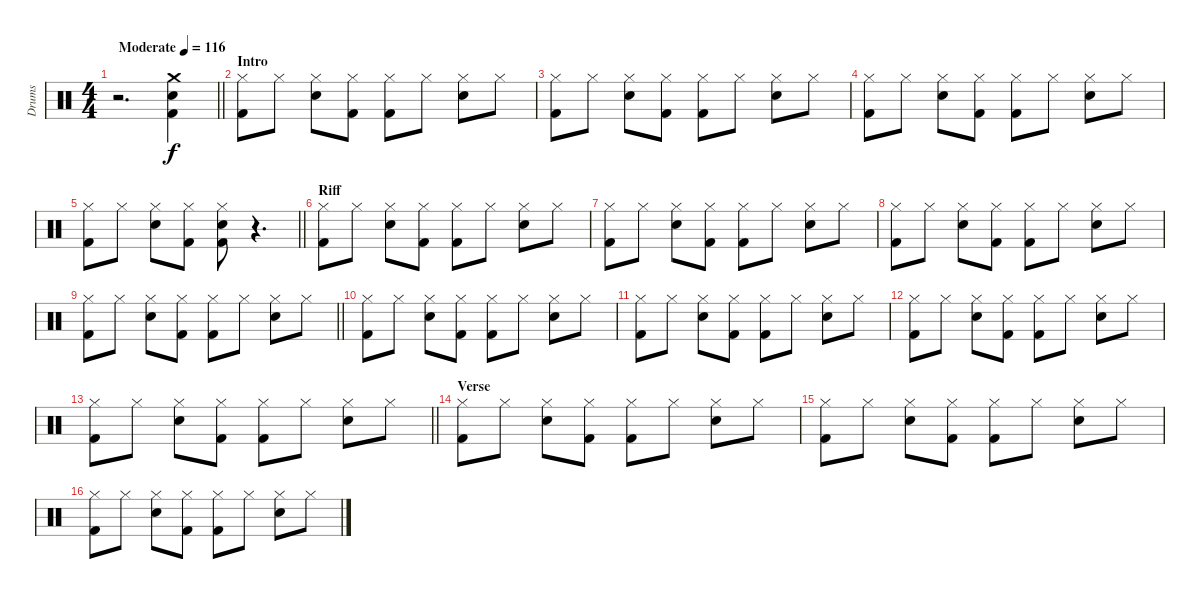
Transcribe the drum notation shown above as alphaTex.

\track ("Drums" "Drums") {instrument percussion}
\staff {score}
\articulation defaults
\ts (4 4)
\tempo (116 "Moderate")
\clef neutral
\barLineRight lightlight
\ks c
r.2{d dy f} ("Electric Snare (hit)" "Kick (hit) 2" "Crash medium (hit)").4 |
\section ("" "Intro")
("Kick (hit) 2" "Hi-Hat (closed)").8 "Hi-Hat (closed)".8 ("Electric Snare (hit)" "Hi-Hat (closed)").8 ("Kick (hit) 2" "Hi-Hat (closed)").8 ("Kick (hit) 2" "Hi-Hat (closed)").8 "Hi-Hat (closed)".8 ("Electric Snare (hit)" "Hi-Hat (closed)").8 "Hi-Hat (closed)".8 |
("Kick (hit) 2" "Hi-Hat (closed)").8 "Hi-Hat (closed)".8 ("Electric Snare (hit)" "Hi-Hat (closed)").8 ("Kick (hit) 2" "Hi-Hat (closed)").8 ("Kick (hit) 2" "Hi-Hat (closed)").8 "Hi-Hat (closed)".8 ("Electric Snare (hit)" "Hi-Hat (closed)").8 "Hi-Hat (closed)".8 |
("Kick (hit) 2" "Hi-Hat (closed)").8 "Hi-Hat (closed)".8 ("Electric Snare (hit)" "Hi-Hat (closed)").8 ("Kick (hit) 2" "Hi-Hat (closed)").8 ("Kick (hit) 2" "Hi-Hat (closed)").8 "Hi-Hat (closed)".8 ("Electric Snare (hit)" "Hi-Hat (closed)").8 "Hi-Hat (closed)".8 |
\barLineRight lightlight
("Kick (hit) 2" "Hi-Hat (closed)").8 "Hi-Hat (closed)".8 ("Electric Snare (hit)" "Hi-Hat (closed)").8 ("Kick (hit) 2" "Hi-Hat (closed)").8 ("Electric Snare (hit)" "Kick (hit) 2" "Hi-Hat (closed)").8 r.4{d} |
\section ("" "Riff")
("Kick (hit) 2" "Hi-Hat (closed)").8 "Hi-Hat (closed)".8 ("Electric Snare (hit)" "Hi-Hat (closed)").8 ("Kick (hit) 2" "Hi-Hat (closed)").8 ("Kick (hit) 2" "Hi-Hat (closed)").8 "Hi-Hat (closed)".8 ("Electric Snare (hit)" "Hi-Hat (closed)").8 "Hi-Hat (closed)".8 |
("Kick (hit) 2" "Hi-Hat (closed)").8 "Hi-Hat (closed)".8 ("Electric Snare (hit)" "Hi-Hat (closed)").8 ("Kick (hit) 2" "Hi-Hat (closed)").8 ("Kick (hit) 2" "Hi-Hat (closed)").8 "Hi-Hat (closed)".8 ("Electric Snare (hit)" "Hi-Hat (closed)").8 "Hi-Hat (closed)".8 |
("Kick (hit) 2" "Hi-Hat (closed)").8 "Hi-Hat (closed)".8 ("Electric Snare (hit)" "Hi-Hat (closed)").8 ("Kick (hit) 2" "Hi-Hat (closed)").8 ("Kick (hit) 2" "Hi-Hat (closed)").8 "Hi-Hat (closed)".8 ("Electric Snare (hit)" "Hi-Hat (closed)").8 "Hi-Hat (closed)".8 |
\barLineRight lightlight
("Kick (hit) 2" "Hi-Hat (closed)").8 "Hi-Hat (closed)".8 ("Electric Snare (hit)" "Hi-Hat (closed)").8 ("Kick (hit) 2" "Hi-Hat (closed)").8 ("Kick (hit) 2" "Hi-Hat (closed)").8 "Hi-Hat (closed)".8 ("Electric Snare (hit)" "Hi-Hat (closed)").8 "Hi-Hat (closed)".8 |
("Kick (hit) 2" "Hi-Hat (closed)").8 "Hi-Hat (closed)".8 ("Electric Snare (hit)" "Hi-Hat (closed)").8 ("Kick (hit) 2" "Hi-Hat (closed)").8 ("Kick (hit) 2" "Hi-Hat (closed)").8 "Hi-Hat (closed)".8 ("Electric Snare (hit)" "Hi-Hat (closed)").8 "Hi-Hat (closed)".8 |
("Kick (hit) 2" "Hi-Hat (closed)").8 "Hi-Hat (closed)".8 ("Electric Snare (hit)" "Hi-Hat (closed)").8 ("Kick (hit) 2" "Hi-Hat (closed)").8 ("Kick (hit) 2" "Hi-Hat (closed)").8 "Hi-Hat (closed)".8 ("Electric Snare (hit)" "Hi-Hat (closed)").8 "Hi-Hat (closed)".8 |
("Kick (hit) 2" "Hi-Hat (closed)").8 "Hi-Hat (closed)".8 ("Electric Snare (hit)" "Hi-Hat (closed)").8 ("Kick (hit) 2" "Hi-Hat (closed)").8 ("Kick (hit) 2" "Hi-Hat (closed)").8 "Hi-Hat (closed)".8 ("Electric Snare (hit)" "Hi-Hat (closed)").8 "Hi-Hat (closed)".8 |
\barLineRight lightlight
("Kick (hit) 2" "Hi-Hat (closed)").8 "Hi-Hat (closed)".8 ("Electric Snare (hit)" "Hi-Hat (closed)").8 ("Kick (hit) 2" "Hi-Hat (closed)").8 ("Kick (hit) 2" "Hi-Hat (closed)").8 "Hi-Hat (closed)".8 ("Electric Snare (hit)" "Hi-Hat (closed)").8 "Hi-Hat (closed)".8 |
\section ("" "Verse")
("Kick (hit) 2" "Hi-Hat (closed)").8 "Hi-Hat (closed)".8 ("Electric Snare (hit)" "Hi-Hat (closed)").8 ("Kick (hit) 2" "Hi-Hat (closed)").8 ("Kick (hit) 2" "Hi-Hat (closed)").8 "Hi-Hat (closed)".8 ("Electric Snare (hit)" "Hi-Hat (closed)").8 "Hi-Hat (closed)".8 |
("Kick (hit) 2" "Hi-Hat (closed)").8 "Hi-Hat (closed)".8 ("Electric Snare (hit)" "Hi-Hat (closed)").8 ("Kick (hit) 2" "Hi-Hat (closed)").8 ("Kick (hit) 2" "Hi-Hat (closed)").8 "Hi-Hat (closed)".8 ("Electric Snare (hit)" "Hi-Hat (closed)").8 "Hi-Hat (closed)".8 |
("Kick (hit) 2" "Hi-Hat (closed)").8 "Hi-Hat (closed)".8 ("Electric Snare (hit)" "Hi-Hat (closed)").8 ("Kick (hit) 2" "Hi-Hat (closed)").8 ("Kick (hit) 2" "Hi-Hat (closed)").8 "Hi-Hat (closed)".8 ("Electric Snare (hit)" "Hi-Hat (closed)").8 "Hi-Hat (closed)".8
